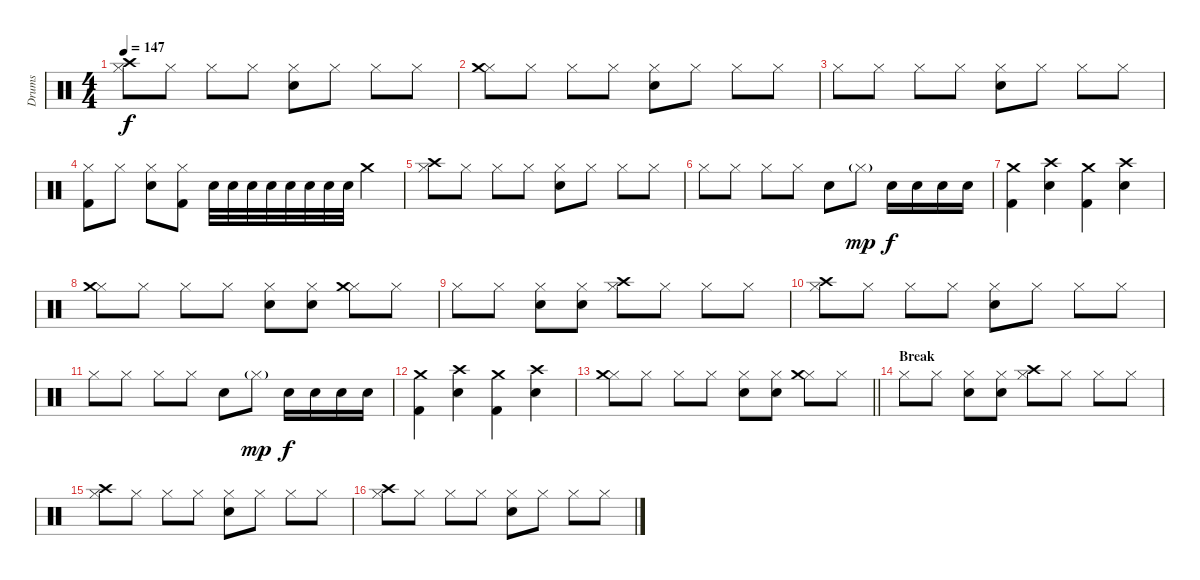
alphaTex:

\track ("Drums" "Drums") {instrument percussion}
\staff
\articulation defaults
\ts (4 4)
\tempo 147
\clef neutral
\ks c
("Hi-Hat (closed)" "Crash high (hit)").8{dy f} "Hi-Hat (closed)".8 "Hi-Hat (closed)".8 "Hi-Hat (closed)".8 ("Hi-Hat (closed)" "Snare (hit) 2").8 "Hi-Hat (closed)".8 "Hi-Hat (closed)".8 "Hi-Hat (closed)".8 |
("Hi-Hat (closed)" "Crash medium (hit)").8 "Hi-Hat (closed)".8 "Hi-Hat (closed)".8 "Hi-Hat (closed)".8 ("Hi-Hat (closed)" "Snare (hit) 2").8 "Hi-Hat (closed)".8 "Hi-Hat (closed)".8 "Hi-Hat (closed)".8 |
"Hi-Hat (closed)".8 "Hi-Hat (closed)".8 "Hi-Hat (closed)".8 "Hi-Hat (closed)".8 ("Hi-Hat (closed)" "Snare (hit) 2").8 "Hi-Hat (closed)".8 "Hi-Hat (closed)".8 "Hi-Hat (closed)".8 |
("Hi-Hat (closed)" "Kick (hit) 2").8 "Hi-Hat (closed)".8 ("Hi-Hat (closed)" "Snare (hit) 2").8 ("Hi-Hat (closed)" "Kick (hit) 2").8 "Snare (hit) 2".32 "Snare (hit) 2".32 "Snare (hit) 2".32 "Snare (hit) 2".32 "Snare (hit) 2".32 "Snare (hit) 2".32 "Snare (hit) 2".32 "Snare (hit) 2".32 "Crash medium (hit)".4 |
("Hi-Hat (closed)" "Crash high (hit)").8 "Hi-Hat (closed)".8 "Hi-Hat (closed)".8 "Hi-Hat (closed)".8 ("Hi-Hat (closed)" "Snare (hit) 2").8 "Hi-Hat (closed)".8 "Hi-Hat (closed)".8 "Hi-Hat (closed)".8 |
"Hi-Hat (closed)".8 "Hi-Hat (closed)".8 "Hi-Hat (closed)".8 "Hi-Hat (closed)".8 "Snare (hit) 2".8 "Hi-Hat (closed)"{g}.8{dy mp} "Snare (hit) 2".16{dy f} "Snare (hit) 2".16 "Snare (hit) 2".16 "Snare (hit) 2".16 |
("Crash medium (hit)" "Kick (hit) 2").4 ("Crash high (hit)" "Snare (hit) 2").4 ("Crash medium (hit)" "Kick (hit) 2").4 ("Crash high (hit)" "Snare (hit) 2").4 |
("Hi-Hat (closed)" "Crash medium (hit)").8 "Hi-Hat (closed)".8 "Hi-Hat (closed)".8 "Hi-Hat (closed)".8 ("Hi-Hat (closed)" "Snare (hit) 2").8 ("Hi-Hat (closed)" "Snare (hit) 2").8 ("Hi-Hat (closed)" "Crash medium (hit)").8 "Hi-Hat (closed)".8 |
"Hi-Hat (closed)".8 "Hi-Hat (closed)".8 ("Hi-Hat (closed)" "Snare (hit) 2").8 ("Hi-Hat (closed)" "Snare (hit) 2").8 ("Hi-Hat (closed)" "Crash high (hit)").8 "Hi-Hat (closed)".8 "Hi-Hat (closed)".8 "Hi-Hat (closed)".8 |
("Hi-Hat (closed)" "Crash high (hit)").8 "Hi-Hat (closed)".8 "Hi-Hat (closed)".8 "Hi-Hat (closed)".8 ("Hi-Hat (closed)" "Snare (hit) 2").8 "Hi-Hat (closed)".8 "Hi-Hat (closed)".8 "Hi-Hat (closed)".8 |
"Hi-Hat (closed)".8 "Hi-Hat (closed)".8 "Hi-Hat (closed)".8 "Hi-Hat (closed)".8 "Snare (hit) 2".8 "Hi-Hat (closed)"{g}.8{dy mp} "Snare (hit) 2".16{dy f} "Snare (hit) 2".16 "Snare (hit) 2".16 "Snare (hit) 2".16 |
("Crash medium (hit)" "Kick (hit) 2").4 ("Crash high (hit)" "Snare (hit) 2").4 ("Crash medium (hit)" "Kick (hit) 2").4 ("Crash high (hit)" "Snare (hit) 2").4 |
\barLineRight lightlight
("Hi-Hat (closed)" "Crash medium (hit)").8 "Hi-Hat (closed)".8 "Hi-Hat (closed)".8 "Hi-Hat (closed)".8 ("Hi-Hat (closed)" "Snare (hit) 2").8 ("Hi-Hat (closed)" "Snare (hit) 2").8 ("Hi-Hat (closed)" "Crash medium (hit)").8 "Hi-Hat (closed)".8 |
\section ("" "Break")
"Hi-Hat (closed)".8 "Hi-Hat (closed)".8 ("Hi-Hat (closed)" "Snare (hit) 2").8 ("Hi-Hat (closed)" "Snare (hit) 2").8 ("Hi-Hat (closed)" "Crash high (hit)").8 "Hi-Hat (closed)".8 "Hi-Hat (closed)".8 "Hi-Hat (closed)".8 |
("Hi-Hat (closed)" "Crash high (hit)").8 "Hi-Hat (closed)".8 "Hi-Hat (closed)".8 "Hi-Hat (closed)".8 ("Hi-Hat (closed)" "Snare (hit) 2").8 "Hi-Hat (closed)".8 "Hi-Hat (closed)".8 "Hi-Hat (closed)".8 |
("Hi-Hat (closed)" "Crash high (hit)").8 "Hi-Hat (closed)".8 "Hi-Hat (closed)".8 "Hi-Hat (closed)".8 ("Hi-Hat (closed)" "Snare (hit) 2").8 "Hi-Hat (closed)".8 "Hi-Hat (closed)".8 "Hi-Hat (closed)".8
